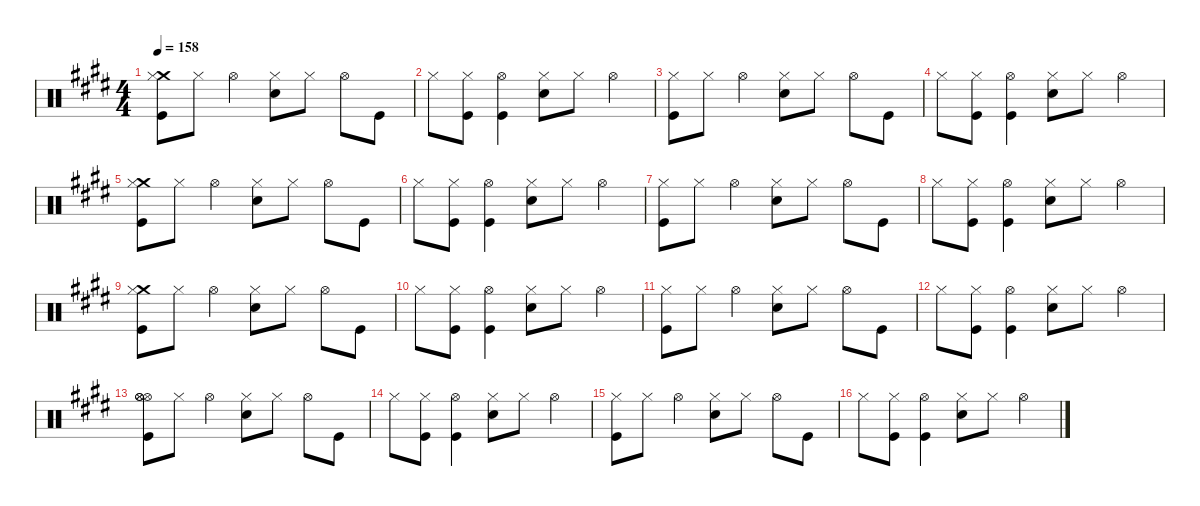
\defaultSystemsLayout 4
\hideDynamics
\bracketExtendMode nobrackets
\singleTrackTrackNamePolicy hidden
\multiTrackTrackNamePolicy hidden
\firstSystemTrackNameMode fullname
\firstSystemTrackNameOrientation horizontal
\otherSystemsTrackNameOrientation horizontal
\track ("Drums" "drm.") {instrument percussion}
\staff {score}
\articulation defaults
\ts (4 4)
\beaming (8 2 2 2 2)
\tempo 158
\clef neutral
\ks c#minor
("Crash medium (hit)"{acc forcenatural} "Hi-Hat (closed)"{acc forcenatural} "Kick (hit)"{acc forcenatural}).8{dy f beam Down} "Hi-Hat (closed)"{acc forcenatural}.8{dy mf beam Down} "Hi-Hat (open)"{acc forcenatural}.4{dy f beam Down} ("Hi-Hat (closed)"{acc forcenatural} "Snare (hit) 2"{acc forcenatural}).8{beam Down} "Hi-Hat (closed)"{acc forcenatural}.8{dy mf beam Down} "Hi-Hat (open)"{acc forcenatural}.8{dy f beam Down} "Kick (hit)"{acc forcenatural}.8{beam Down} |
"Hi-Hat (closed)"{acc forcenatural}.8{beam Down} ("Hi-Hat (closed)"{acc forcenatural} "Kick (hit)"{acc forcenatural}).8{dy mf beam Down} ("Hi-Hat (open)"{acc forcenatural} "Kick (hit)"{acc forcenatural}).4{dy f beam Down} ("Hi-Hat (closed)"{acc forcenatural} "Snare (hit) 2"{acc forcenatural}).8{beam Down} "Hi-Hat (closed)"{acc forcenatural}.8{dy mf beam Down} "Hi-Hat (open)"{acc forcenatural}.4{dy f beam Down} |
("Hi-Hat (closed)"{acc forcenatural} "Kick (hit)"{acc forcenatural}).8{beam Down} "Hi-Hat (closed)"{acc forcenatural}.8{dy mf beam Down} "Hi-Hat (open)"{acc forcenatural}.4{dy f beam Down} ("Hi-Hat (closed)"{acc forcenatural} "Snare (hit) 2"{acc forcenatural}).8{beam Down} "Hi-Hat (closed)"{acc forcenatural}.8{dy mf beam Down} "Hi-Hat (open)"{acc forcenatural}.8{dy f beam Down} "Kick (hit)"{acc forcenatural}.8{beam Down} |
"Hi-Hat (closed)"{acc forcenatural}.8{beam Down} ("Hi-Hat (closed)"{acc forcenatural} "Kick (hit)"{acc forcenatural}).8{dy mf beam Down} ("Hi-Hat (open)"{acc forcenatural} "Kick (hit)"{acc forcenatural}).4{dy f beam Down} ("Hi-Hat (closed)"{acc forcenatural} "Snare (hit) 2"{acc forcenatural}).8{beam Down} "Hi-Hat (closed)"{acc forcenatural}.8{dy mf beam Down} "Hi-Hat (open)"{acc forcenatural}.4{dy f beam Down} |
("Crash medium (hit)"{acc forcenatural} "Hi-Hat (closed)"{acc forcenatural} "Kick (hit)"{acc forcenatural}).8{beam Down} "Hi-Hat (closed)"{acc forcenatural}.8{dy mf beam Down} "Hi-Hat (open)"{acc forcenatural}.4{dy f beam Down} ("Hi-Hat (closed)"{acc forcenatural} "Snare (hit) 2"{acc forcenatural}).8{beam Down} "Hi-Hat (closed)"{acc forcenatural}.8{dy mf beam Down} "Hi-Hat (open)"{acc forcenatural}.8{dy f beam Down} "Kick (hit)"{acc forcenatural}.8{beam Down} |
"Hi-Hat (closed)"{acc forcenatural}.8{beam Down} ("Hi-Hat (closed)"{acc forcenatural} "Kick (hit)"{acc forcenatural}).8{dy mf beam Down} ("Hi-Hat (open)"{acc forcenatural} "Kick (hit)"{acc forcenatural}).4{dy f beam Down} ("Hi-Hat (closed)"{acc forcenatural} "Snare (hit) 2"{acc forcenatural}).8{beam Down} "Hi-Hat (closed)"{acc forcenatural}.8{dy mf beam Down} "Hi-Hat (open)"{acc forcenatural}.4{dy f beam Down} |
("Hi-Hat (closed)"{acc forcenatural} "Kick (hit)"{acc forcenatural}).8{beam Down} "Hi-Hat (closed)"{acc forcenatural}.8{dy mf beam Down} "Hi-Hat (open)"{acc forcenatural}.4{dy f beam Down} ("Hi-Hat (closed)"{acc forcenatural} "Snare (hit) 2"{acc forcenatural}).8{beam Down} "Hi-Hat (closed)"{acc forcenatural}.8{dy mf beam Down} "Hi-Hat (open)"{acc forcenatural}.8{dy f beam Down} "Kick (hit)"{acc forcenatural}.8{beam Down} |
"Hi-Hat (closed)"{acc forcenatural}.8{beam Down} ("Hi-Hat (closed)"{acc forcenatural} "Kick (hit)"{acc forcenatural}).8{dy mf beam Down} ("Hi-Hat (open)"{acc forcenatural} "Kick (hit)"{acc forcenatural}).4{dy f beam Down} ("Hi-Hat (closed)"{acc forcenatural} "Snare (hit) 2"{acc forcenatural}).8{beam Down} "Hi-Hat (closed)"{acc forcenatural}.8{dy mf beam Down} "Hi-Hat (open)"{acc forcenatural}.4{dy f beam Down} |
("Crash medium (hit)"{acc forcenatural} "Hi-Hat (closed)"{acc forcenatural} "Kick (hit)"{acc forcenatural}).8{beam Down} "Hi-Hat (closed)"{acc forcenatural}.8{dy mf beam Down} "Hi-Hat (open)"{acc forcenatural}.4{dy f beam Down} ("Hi-Hat (closed)"{acc forcenatural} "Snare (hit) 2"{acc forcenatural}).8{beam Down} "Hi-Hat (closed)"{acc forcenatural}.8{dy mf beam Down} "Hi-Hat (open)"{acc forcenatural}.8{dy f beam Down} "Kick (hit)"{acc forcenatural}.8{beam Down} |
"Hi-Hat (closed)"{acc forcenatural}.8{beam Down} ("Hi-Hat (closed)"{acc forcenatural} "Kick (hit)"{acc forcenatural}).8{dy mf beam Down} ("Hi-Hat (open)"{acc forcenatural} "Kick (hit)"{acc forcenatural}).4{dy f beam Down} ("Hi-Hat (closed)"{acc forcenatural} "Snare (hit) 2"{acc forcenatural}).8{beam Down} "Hi-Hat (closed)"{acc forcenatural}.8{dy mf beam Down} "Hi-Hat (open)"{acc forcenatural}.4{dy f beam Down} |
("Hi-Hat (closed)"{acc forcenatural} "Kick (hit)"{acc forcenatural}).8{beam Down} "Hi-Hat (closed)"{acc forcenatural}.8{dy mf beam Down} "Hi-Hat (open)"{acc forcenatural}.4{dy f beam Down} ("Hi-Hat (closed)"{acc forcenatural} "Snare (hit) 2"{acc forcenatural}).8{beam Down} "Hi-Hat (closed)"{acc forcenatural}.8{dy mf beam Down} "Hi-Hat (open)"{acc forcenatural}.8{dy f beam Down} "Kick (hit)"{acc forcenatural}.8{beam Down} |
"Hi-Hat (closed)"{acc forcenatural}.8{beam Down} ("Hi-Hat (closed)"{acc forcenatural} "Kick (hit)"{acc forcenatural}).8{dy mf beam Down} ("Hi-Hat (open)"{acc forcenatural} "Kick (hit)"{acc forcenatural}).4{dy f beam Down} ("Hi-Hat (closed)"{acc forcenatural} "Snare (hit) 2"{acc forcenatural}).8{beam Down} "Hi-Hat (closed)"{acc forcenatural}.8{dy mf beam Down} "Hi-Hat (open)"{acc forcenatural}.4{dy f beam Down} |
("Hi-Hat (open)"{acc forcenatural} "Hi-Hat (open)"{acc forcenatural} "Hi-Hat (open)"{acc forcenatural} "Kick (hit)"{acc forcenatural}).8{beam Down} "Hi-Hat (closed)"{acc forcenatural}.8{dy mf beam Down} "Hi-Hat (open)"{acc forcenatural}.4{dy f beam Down} ("Hi-Hat (closed)"{acc forcenatural} "Snare (hit) 2"{acc forcenatural}).8{beam Down} "Hi-Hat (closed)"{acc forcenatural}.8{dy mf beam Down} "Hi-Hat (open)"{acc forcenatural}.8{dy f beam Down} "Kick (hit)"{acc forcenatural}.8{beam Down} |
"Hi-Hat (closed)"{acc forcenatural}.8{beam Down} ("Hi-Hat (closed)"{acc forcenatural} "Kick (hit)"{acc forcenatural}).8{dy mf beam Down} ("Hi-Hat (open)"{acc forcenatural} "Kick (hit)"{acc forcenatural}).4{dy f beam Down} ("Hi-Hat (closed)"{acc forcenatural} "Snare (hit) 2"{acc forcenatural}).8{beam Down} "Hi-Hat (closed)"{acc forcenatural}.8{dy mf beam Down} "Hi-Hat (open)"{acc forcenatural}.4{dy f beam Down} |
("Hi-Hat (closed)"{acc forcenatural} "Kick (hit)"{acc forcenatural}).8{beam Down} "Hi-Hat (closed)"{acc forcenatural}.8{dy mf beam Down} "Hi-Hat (open)"{acc forcenatural}.4{dy f beam Down} ("Hi-Hat (closed)"{acc forcenatural} "Snare (hit) 2"{acc forcenatural}).8{beam Down} "Hi-Hat (closed)"{acc forcenatural}.8{dy mf beam Down} "Hi-Hat (open)"{acc forcenatural}.8{dy f beam Down} "Kick (hit)"{acc forcenatural}.8{beam Down} |
"Hi-Hat (closed)"{acc forcenatural}.8{beam Down} ("Hi-Hat (closed)"{acc forcenatural} "Kick (hit)"{acc forcenatural}).8{dy mf beam Down} ("Hi-Hat (open)"{acc forcenatural} "Kick (hit)"{acc forcenatural}).4{dy f beam Down} ("Hi-Hat (closed)"{acc forcenatural} "Snare (hit) 2"{acc forcenatural}).8{beam Down} "Hi-Hat (closed)"{acc forcenatural}.8{dy mf beam Down} "Hi-Hat (open)"{acc forcenatural}.4{dy f beam Down}
